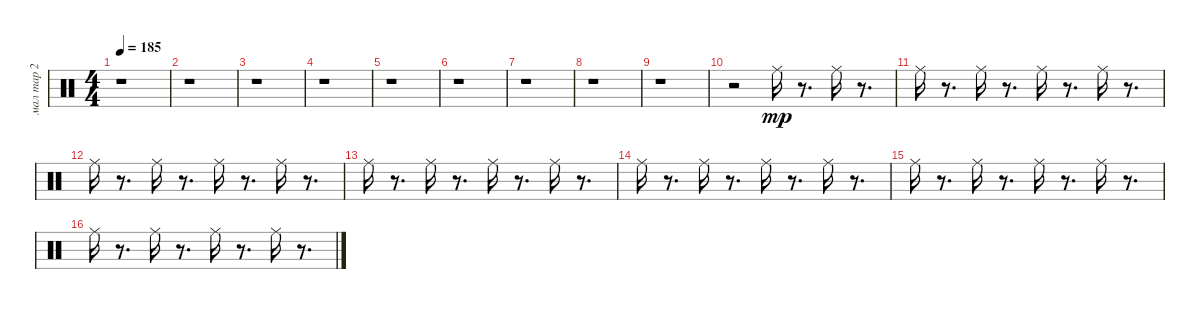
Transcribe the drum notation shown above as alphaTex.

\track ("мал тар 2" "мал тар 2") {instrument percussion}
\staff {score}
\articulation defaults
\ts (4 4)
\tempo 185
\clef neutral
\ks c
r.1{dy mp} |
r.1 |
r.1 |
r.1 |
r.1 |
r.1 |
r.1 |
r.1 |
r.1 |
r.2 "Ride (middle)".16 r.8{d} "Ride (middle)".16 r.8{d} |
"Ride (middle)".16 r.8{d} "Ride (middle)".16 r.8{d} "Ride (middle)".16 r.8{d} "Ride (middle)".16 r.8{d} |
"Ride (middle)".16 r.8{d} "Ride (middle)".16 r.8{d} "Ride (middle)".16 r.8{d} "Ride (middle)".16 r.8{d} |
"Ride (middle)".16 r.8{d} "Ride (middle)".16 r.8{d} "Ride (middle)".16 r.8{d} "Ride (middle)".16 r.8{d} |
"Ride (middle)".16 r.8{d} "Ride (middle)".16 r.8{d} "Ride (middle)".16 r.8{d} "Ride (middle)".16 r.8{d} |
"Ride (middle)".16 r.8{d} "Ride (middle)".16 r.8{d} "Ride (middle)".16 r.8{d} "Ride (middle)".16 r.8{d} |
"Ride (middle)".16 r.8{d} "Ride (middle)".16 r.8{d} "Ride (middle)".16 r.8{d} "Ride (middle)".16 r.8{d}
